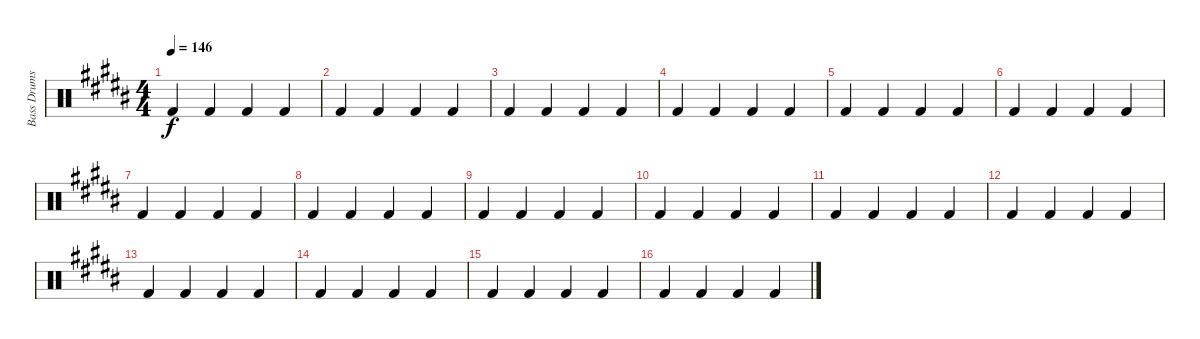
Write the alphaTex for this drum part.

\track ("Bass Drums" "Bass Drums") {instrument percussion}
\staff {score}
\articulation defaults
\ts (4 4)
\tempo 146
\clef neutral
\ks b "Kick (hit) 2".4{dy f} "Kick (hit) 2".4 "Kick (hit) 2".4 "Kick (hit) 2".4
|
"Kick (hit) 2".4 "Kick (hit) 2".4 "Kick (hit) 2".4 "Kick (hit) 2".4 |
"Kick (hit) 2".4 "Kick (hit) 2".4 "Kick (hit) 2".4 "Kick (hit) 2".4 |
"Kick (hit) 2".4 "Kick (hit) 2".4 "Kick (hit) 2".4 "Kick (hit) 2".4 |
"Kick (hit) 2".4 "Kick (hit) 2".4 "Kick (hit) 2".4 "Kick (hit) 2".4 |
"Kick (hit) 2".4 "Kick (hit) 2".4 "Kick (hit) 2".4 "Kick (hit) 2".4 |
"Kick (hit) 2".4 "Kick (hit) 2".4 "Kick (hit) 2".4 "Kick (hit) 2".4 |
"Kick (hit) 2".4 "Kick (hit) 2".4 "Kick (hit) 2".4 "Kick (hit) 2".4 |
"Kick (hit) 2".4 "Kick (hit) 2".4 "Kick (hit) 2".4 "Kick (hit) 2".4 |
"Kick (hit) 2".4 "Kick (hit) 2".4 "Kick (hit) 2".4 "Kick (hit) 2".4 |
"Kick (hit) 2".4 "Kick (hit) 2".4 "Kick (hit) 2".4 "Kick (hit) 2".4 |
"Kick (hit) 2".4 "Kick (hit) 2".4 "Kick (hit) 2".4 "Kick (hit) 2".4 |
"Kick (hit) 2".4 "Kick (hit) 2".4 "Kick (hit) 2".4 "Kick (hit) 2".4 |
"Kick (hit) 2".4 "Kick (hit) 2".4 "Kick (hit) 2".4 "Kick (hit) 2".4 |
"Kick (hit) 2".4 "Kick (hit) 2".4 "Kick (hit) 2".4 "Kick (hit) 2".4 |
"Kick (hit) 2".4 "Kick (hit) 2".4 "Kick (hit) 2".4 "Kick (hit) 2".4
